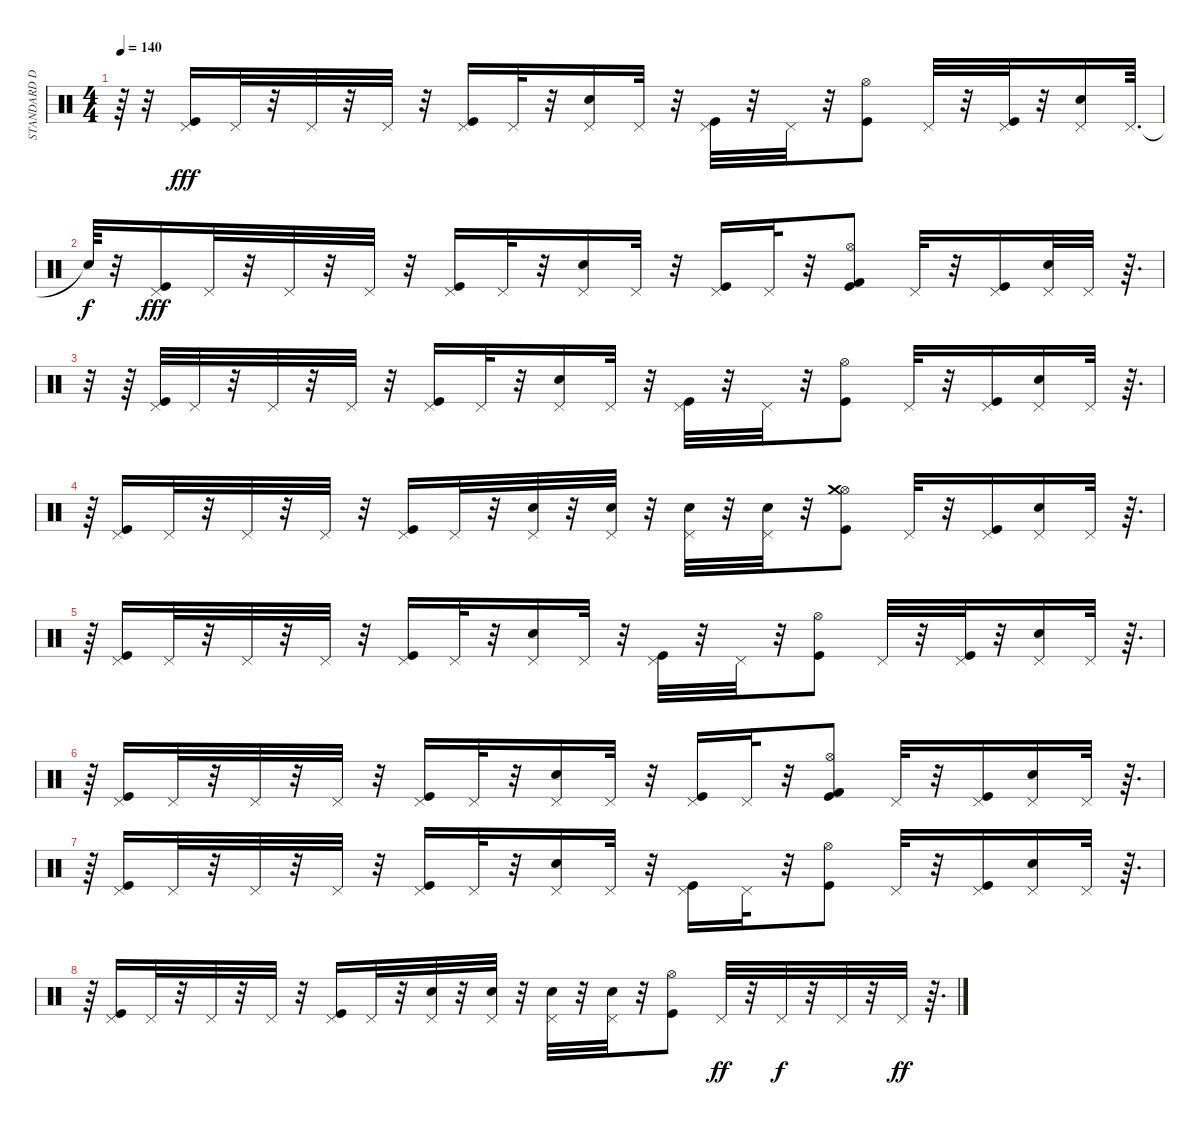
\track ("STANDARD DRUMS" "STANDARD D") {instrument percussion}
\staff {score}
\articulation defaults
\ts (4 4)
\tempo 140
\clef neutral
\ks c
r.64{dy fff} r.32 ("Kick (hit)" "Pedal Hi-Hat (hit)").16 "Pedal Hi-Hat (hit)".32 r.32 "Pedal Hi-Hat (hit)".32 r.32 "Pedal Hi-Hat (hit)".32 r.32 ("Kick (hit)" "Pedal Hi-Hat (hit)").16 "Pedal Hi-Hat (hit)".32 r.32 ("Snare (hit) 2" "Pedal Hi-Hat (hit)").16 "Pedal Hi-Hat (hit)".32 r.32 ("Kick (hit)" "Pedal Hi-Hat (hit)").32 r.32 "Pedal Hi-Hat (hit)".32 r.32 ("Kick (hit)" "Hi-Hat (open)").8 "Pedal Hi-Hat (hit)".32 r.32 ("Kick (hit)" "Pedal Hi-Hat (hit)").32 r.32 ("Snare (hit) 2" "Pedal Hi-Hat (hit)").16 "Pedal Hi-Hat (hit)".64{d} |
"Snare (hit)"{t}.64{dy f} r.32 ("Kick (hit)" "Pedal Hi-Hat (hit)").16{dy fff} "Pedal Hi-Hat (hit)".32 r.32 "Pedal Hi-Hat (hit)".32 r.32 "Pedal Hi-Hat (hit)".32 r.32 ("Kick (hit)" "Pedal Hi-Hat (hit)").16 "Pedal Hi-Hat (hit)".32 r.32 ("Snare (hit) 2" "Pedal Hi-Hat (hit)").16 "Pedal Hi-Hat (hit)".32 r.32 ("Kick (hit)" "Pedal Hi-Hat (hit)").16 "Pedal Hi-Hat (hit)".32 r.32 ("Kick (hit)" "Kick (hit) 2" "Hi-Hat (open)").8 "Pedal Hi-Hat (hit)".32 r.32 ("Kick (hit)" "Pedal Hi-Hat (hit)").16 ("Snare (hit) 2" "Pedal Hi-Hat (hit)").32 "Pedal Hi-Hat (hit)".32 r.64{d} |
r.32 r.64 ("Kick (hit)" "Pedal Hi-Hat (hit)").32 "Pedal Hi-Hat (hit)".32 r.32 "Pedal Hi-Hat (hit)".32 r.32 "Pedal Hi-Hat (hit)".32 r.32 ("Kick (hit)" "Pedal Hi-Hat (hit)").16 "Pedal Hi-Hat (hit)".32 r.32 ("Snare (hit) 2" "Pedal Hi-Hat (hit)").16 "Pedal Hi-Hat (hit)".32 r.32 ("Kick (hit)" "Pedal Hi-Hat (hit)").32 r.32 "Pedal Hi-Hat (hit)".32 r.32 ("Kick (hit)" "Hi-Hat (open)").8 "Pedal Hi-Hat (hit)".32 r.32 ("Kick (hit)" "Pedal Hi-Hat (hit)").16 ("Snare (hit) 2" "Pedal Hi-Hat (hit)").16 "Pedal Hi-Hat (hit)".32 r.64{d} |
r.64 ("Kick (hit)" "Pedal Hi-Hat (hit)").16 "Pedal Hi-Hat (hit)".32 r.32 "Pedal Hi-Hat (hit)".32 r.32 "Pedal Hi-Hat (hit)".32 r.32 ("Kick (hit)" "Pedal Hi-Hat (hit)").16 "Pedal Hi-Hat (hit)".32 r.32 ("Snare (hit) 2" "Pedal Hi-Hat (hit)").32 r.32 ("Snare (hit) 2" "Pedal Hi-Hat (hit)").32 r.32 ("Snare (hit) 2" "Pedal Hi-Hat (hit)").32 r.32 ("Snare (hit) 2" "Pedal Hi-Hat (hit)").32 r.32 ("Kick (hit)" "Hi-Hat (open)" "Crash medium (hit)").8 "Pedal Hi-Hat (hit)".32 r.32 ("Kick (hit)" "Pedal Hi-Hat (hit)").16 ("Snare (hit) 2" "Pedal Hi-Hat (hit)").16 "Pedal Hi-Hat (hit)".32 r.64{d} |
r.64 ("Kick (hit)" "Pedal Hi-Hat (hit)").16 "Pedal Hi-Hat (hit)".32 r.32 "Pedal Hi-Hat (hit)".32 r.32 "Pedal Hi-Hat (hit)".32 r.32 ("Kick (hit)" "Pedal Hi-Hat (hit)").16 "Pedal Hi-Hat (hit)".32 r.32 ("Snare (hit) 2" "Pedal Hi-Hat (hit)").16 "Pedal Hi-Hat (hit)".32 r.32 ("Kick (hit)" "Pedal Hi-Hat (hit)").32 r.32 "Pedal Hi-Hat (hit)".32 r.32 ("Kick (hit)" "Hi-Hat (open)").8 "Pedal Hi-Hat (hit)".32 r.32 ("Kick (hit)" "Pedal Hi-Hat (hit)").32 r.32 ("Snare (hit) 2" "Pedal Hi-Hat (hit)").16 "Pedal Hi-Hat (hit)".32 r.64{d} |
r.64 ("Kick (hit)" "Pedal Hi-Hat (hit)").16 "Pedal Hi-Hat (hit)".32 r.32 "Pedal Hi-Hat (hit)".32 r.32 "Pedal Hi-Hat (hit)".32 r.32 ("Kick (hit)" "Pedal Hi-Hat (hit)").16 "Pedal Hi-Hat (hit)".32 r.32 ("Snare (hit) 2" "Pedal Hi-Hat (hit)").16 "Pedal Hi-Hat (hit)".32 r.32 ("Kick (hit)" "Pedal Hi-Hat (hit)").16 "Pedal Hi-Hat (hit)".32 r.32 ("Kick (hit)" "Kick (hit) 2" "Hi-Hat (open)").8 "Pedal Hi-Hat (hit)".32 r.32 ("Kick (hit)" "Pedal Hi-Hat (hit)").16 ("Snare (hit) 2" "Pedal Hi-Hat (hit)").16 "Pedal Hi-Hat (hit)".32 r.64{d} |
r.64 ("Kick (hit)" "Pedal Hi-Hat (hit)").16 "Pedal Hi-Hat (hit)".32 r.32 "Pedal Hi-Hat (hit)".32 r.32 "Pedal Hi-Hat (hit)".32 r.32 ("Kick (hit)" "Pedal Hi-Hat (hit)").16 "Pedal Hi-Hat (hit)".32 r.32 ("Snare (hit) 2" "Pedal Hi-Hat (hit)").16 "Pedal Hi-Hat (hit)".32 r.32 ("Kick (hit)" "Pedal Hi-Hat (hit)").16 "Pedal Hi-Hat (hit)".32 r.32 ("Kick (hit)" "Hi-Hat (open)").8 "Pedal Hi-Hat (hit)".32 r.32 ("Kick (hit)" "Pedal Hi-Hat (hit)").16 ("Snare (hit) 2" "Pedal Hi-Hat (hit)").16 "Pedal Hi-Hat (hit)".32 r.64{d} |
r.64 ("Kick (hit)" "Pedal Hi-Hat (hit)").16 "Pedal Hi-Hat (hit)".32 r.32 "Pedal Hi-Hat (hit)".32 r.32 "Pedal Hi-Hat (hit)".32 r.32 ("Kick (hit)" "Pedal Hi-Hat (hit)").16 "Pedal Hi-Hat (hit)".32 r.32 ("Snare (hit) 2" "Pedal Hi-Hat (hit)").32 r.32 ("Snare (hit) 2" "Pedal Hi-Hat (hit)").32 r.32 ("Snare (hit) 2" "Pedal Hi-Hat (hit)").32 r.32 ("Snare (hit) 2" "Pedal Hi-Hat (hit)").32 r.32 ("Kick (hit)" "Hi-Hat (open)").8 "Pedal Hi-Hat (hit)".32{dy ff} r.32 "Pedal Hi-Hat (hit)".32{dy f} r.32 "Pedal Hi-Hat (hit)".32 r.32 "Pedal Hi-Hat (hit)".32{dy ff} r.64{d}
